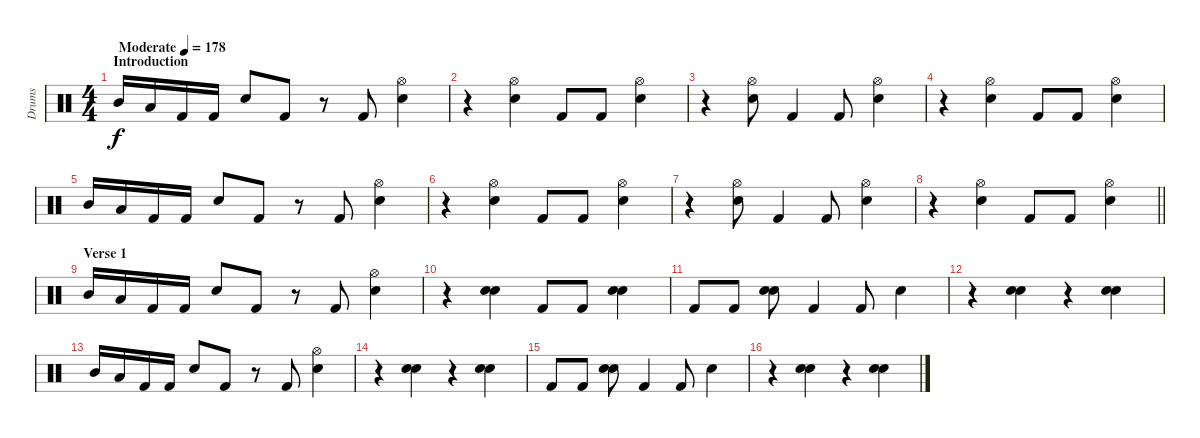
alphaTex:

\track ("Drums" "Drums") {instrument percussion}
\staff {score}
\articulation defaults
\ts (4 4)
\section ("" "Introduction")
\tempo (178 "Moderate")
\clef neutral
\ks c "Mid Tom (hit)".16{dy f} "Low Tom (hit)".16 "Kick (hit) 2".16 "Kick (hit) 2".16 "Electric Snare (hit)".8 "Kick (hit) 2".8
r.8 "Kick (hit) 2".8 ("Hi-Hat (open)" "Electric Snare (hit)").4 |
r.4 ("Hi-Hat (open)" "Electric Snare (hit)").4 "Kick (hit) 2".8 "Kick (hit) 2".8 ("Hi-Hat (open)" "Electric Snare (hit)").4 |
r.4 ("Hi-Hat (open)" "Electric Snare (hit)").8 "Kick (hit) 2".4 "Kick (hit) 2".8 ("Hi-Hat (open)" "Electric Snare (hit)").4 |
r.4 ("Hi-Hat (open)" "Electric Snare (hit)").4 "Kick (hit) 2".8 "Kick (hit) 2".8 ("Hi-Hat (open)" "Electric Snare (hit)").4 |
"Mid Tom (hit)".16 "Low Tom (hit)".16 "Kick (hit) 2".16 "Kick (hit) 2".16 "Electric Snare (hit)".8 "Kick (hit) 2".8 r.8 "Kick (hit) 2".8 ("Hi-Hat (open)" "Electric Snare (hit)").4 |
r.4 ("Hi-Hat (open)" "Electric Snare (hit)").4 "Kick (hit) 2".8 "Kick (hit) 2".8 ("Hi-Hat (open)" "Electric Snare (hit)").4 |
r.4 ("Hi-Hat (open)" "Electric Snare (hit)").8 "Kick (hit) 2".4 "Kick (hit) 2".8 ("Hi-Hat (open)" "Electric Snare (hit)").4 |
\barLineRight lightlight
r.4 ("Hi-Hat (open)" "Electric Snare (hit)").4 "Kick (hit) 2".8 "Kick (hit) 2".8 ("Hi-Hat (open)" "Electric Snare (hit)").4 |
\section ("" "Verse 1")
"Mid Tom (hit)".16 "Low Tom (hit)".16 "Kick (hit) 2".16 "Kick (hit) 2".16 "Electric Snare (hit)".8 "Kick (hit) 2".8 r.8 "Kick (hit) 2".8 ("Hi-Hat (open)" "Electric Snare (hit)").4 |
r.4 ("Electric Snare (hit)" "Electric Snare (hit)").4{bd 120} "Kick (hit) 2".8 "Kick (hit) 2".8 ("Electric Snare (hit)" "Electric Snare (hit)").4{bd 120} |
"Kick (hit) 2".8 "Kick (hit) 2".8 ("Electric Snare (hit)" "Electric Snare (hit)").8{bd 120} "Kick (hit) 2".4 "Kick (hit) 2".8 "Electric Snare (hit)".4 |
r.4 ("Electric Snare (hit)" "Electric Snare (hit)").4{bd 120} r.4 ("Electric Snare (hit)" "Electric Snare (hit)").4{bd 120} |
"Mid Tom (hit)".16 "Low Tom (hit)".16 "Kick (hit) 2".16 "Kick (hit) 2".16 "Electric Snare (hit)".8 "Kick (hit) 2".8 r.8 "Kick (hit) 2".8 ("Hi-Hat (open)" "Electric Snare (hit)").4 |
r.4 ("Electric Snare (hit)" "Electric Snare (hit)").4{bd 120} r.4 ("Electric Snare (hit)" "Electric Snare (hit)").4{bd 120} |
"Kick (hit) 2".8 "Kick (hit) 2".8 ("Electric Snare (hit)" "Electric Snare (hit)").8{bd 120} "Kick (hit) 2".4 "Kick (hit) 2".8 "Electric Snare (hit)".4 |
r.4 ("Electric Snare (hit)" "Electric Snare (hit)").4{bd 120} r.4 ("Electric Snare (hit)" "Electric Snare (hit)").4{bd 120}
